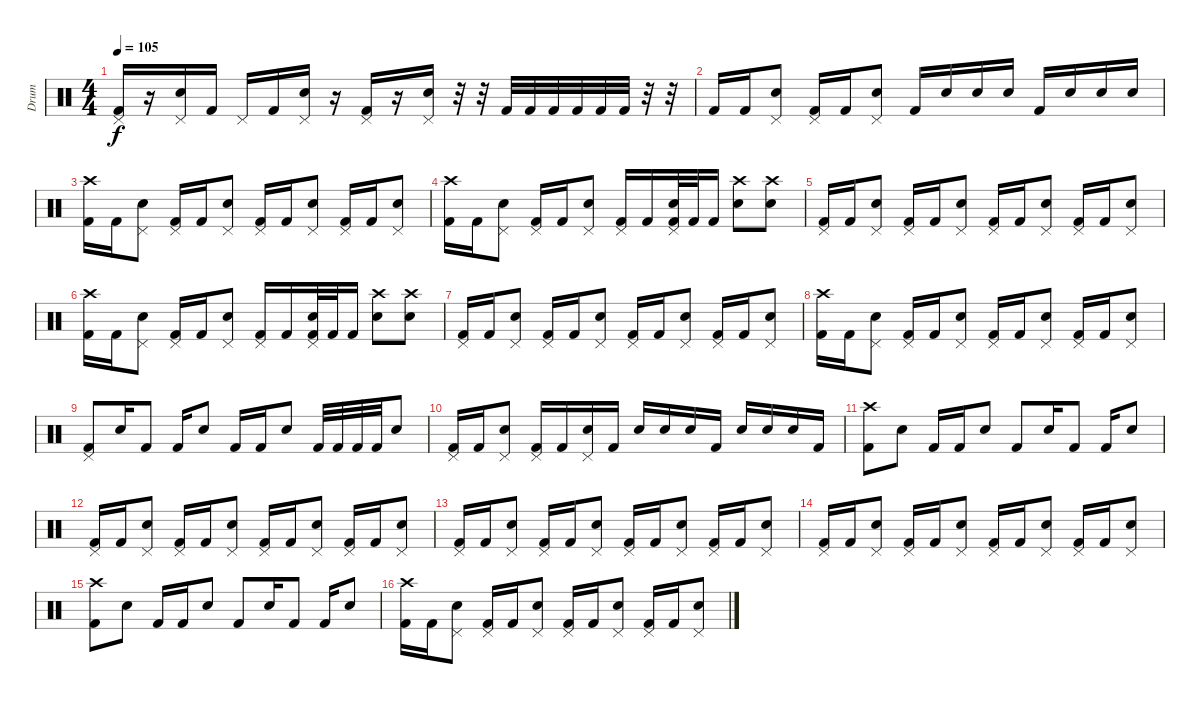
\track ("Drum" "Drum") {instrument percussion}
\staff {score}
\articulation defaults
\ts (4 4)
\tempo 105
\clef neutral
\ks c
("Pedal Hi-Hat (hit)" "Kick (hit) 2").16{dy f} r.16 ("Pedal Hi-Hat (hit)" "Snare (hit) 2").16 "Kick (hit) 2".16 "Pedal Hi-Hat (hit)".16 "Kick (hit) 2".16 ("Pedal Hi-Hat (hit)" "Snare (hit) 2").16 r.16 ("Pedal Hi-Hat (hit)" "Kick (hit) 2").16 r.16 ("Pedal Hi-Hat (hit)" "Snare (hit) 2").16 r.32 r.32 "Kick (hit) 2".32 "Kick (hit) 2".32 "Kick (hit) 2".32 "Kick (hit) 2".32 "Kick (hit) 2".32 "Kick (hit) 2".32 r.32 r.32 |
"Kick (hit) 2".16 "Kick (hit) 2".16 ("Pedal Hi-Hat (hit)" "Snare (hit) 2").8 ("Pedal Hi-Hat (hit)" "Kick (hit) 2").16 "Kick (hit) 2".16 ("Pedal Hi-Hat (hit)" "Snare (hit) 2").8 "Kick (hit) 2".16 "Snare (hit) 2".16 "Snare (hit) 2".16 "Snare (hit) 2".16 "Kick (hit) 2".16 "Snare (hit) 2".16 "Snare (hit) 2".16 "Snare (hit) 2".16 |
("Crash high (hit)" "Kick (hit) 2").16 "Kick (hit) 2".16 ("Pedal Hi-Hat (hit)" "Snare (hit) 2").8 ("Pedal Hi-Hat (hit)" "Kick (hit) 2").16 "Kick (hit) 2".16 ("Pedal Hi-Hat (hit)" "Snare (hit) 2").8 ("Pedal Hi-Hat (hit)" "Kick (hit) 2").16 "Kick (hit) 2".16 ("Pedal Hi-Hat (hit)" "Snare (hit) 2").8 ("Pedal Hi-Hat (hit)" "Kick (hit) 2").16 "Kick (hit) 2".16 ("Pedal Hi-Hat (hit)" "Snare (hit) 2").8 |
("Crash high (hit)" "Kick (hit) 2").16 "Kick (hit) 2".16 ("Pedal Hi-Hat (hit)" "Snare (hit) 2").8 ("Pedal Hi-Hat (hit)" "Kick (hit) 2").16 "Kick (hit) 2".16 ("Pedal Hi-Hat (hit)" "Snare (hit) 2").8 ("Pedal Hi-Hat (hit)" "Kick (hit) 2").16 "Kick (hit) 2".16 ("Pedal Hi-Hat (hit)" "Snare (hit) 2" "Kick (hit) 2").32 "Kick (hit) 2".32 "Kick (hit) 2".16 ("Crash high (hit)" "Snare (hit) 2").8 ("Crash high (hit)" "Snare (hit) 2").8 |
("Pedal Hi-Hat (hit)" "Kick (hit) 2").16 "Kick (hit) 2".16 ("Pedal Hi-Hat (hit)" "Snare (hit) 2").8 ("Pedal Hi-Hat (hit)" "Kick (hit) 2").16 "Kick (hit) 2".16 ("Pedal Hi-Hat (hit)" "Snare (hit) 2").8 ("Pedal Hi-Hat (hit)" "Kick (hit) 2").16 "Kick (hit) 2".16 ("Pedal Hi-Hat (hit)" "Snare (hit) 2").8 ("Pedal Hi-Hat (hit)" "Kick (hit) 2").16 "Kick (hit) 2".16 ("Pedal Hi-Hat (hit)" "Snare (hit) 2").8 |
("Crash high (hit)" "Kick (hit) 2").16 "Kick (hit) 2".16 ("Pedal Hi-Hat (hit)" "Snare (hit) 2").8 ("Pedal Hi-Hat (hit)" "Kick (hit) 2").16 "Kick (hit) 2".16 ("Pedal Hi-Hat (hit)" "Snare (hit) 2").8 ("Pedal Hi-Hat (hit)" "Kick (hit) 2").16 "Kick (hit) 2".16 ("Pedal Hi-Hat (hit)" "Snare (hit) 2" "Kick (hit) 2").32 "Kick (hit) 2".32 "Kick (hit) 2".16 ("Crash high (hit)" "Snare (hit) 2").8 ("Crash high (hit)" "Snare (hit) 2").8 |
("Pedal Hi-Hat (hit)" "Kick (hit) 2").16 "Kick (hit) 2".16 ("Pedal Hi-Hat (hit)" "Snare (hit) 2").8 ("Pedal Hi-Hat (hit)" "Kick (hit) 2").16 "Kick (hit) 2".16 ("Pedal Hi-Hat (hit)" "Snare (hit) 2").8 ("Pedal Hi-Hat (hit)" "Kick (hit) 2").16 "Kick (hit) 2".16 ("Pedal Hi-Hat (hit)" "Snare (hit) 2").8 ("Pedal Hi-Hat (hit)" "Kick (hit) 2").16 "Kick (hit) 2".16 ("Pedal Hi-Hat (hit)" "Snare (hit) 2").8 |
("Crash high (hit)" "Kick (hit) 2").16 "Kick (hit) 2".16 ("Pedal Hi-Hat (hit)" "Snare (hit) 2").8 ("Pedal Hi-Hat (hit)" "Kick (hit) 2").16 "Kick (hit) 2".16 ("Pedal Hi-Hat (hit)" "Snare (hit) 2").8 ("Pedal Hi-Hat (hit)" "Kick (hit) 2").16 "Kick (hit) 2".16 ("Pedal Hi-Hat (hit)" "Snare (hit) 2").8 ("Pedal Hi-Hat (hit)" "Kick (hit) 2").16 "Kick (hit) 2".16 ("Pedal Hi-Hat (hit)" "Snare (hit) 2").8 |
("Pedal Hi-Hat (hit)" "Kick (hit) 2").8 "Snare (hit) 2".16 "Kick (hit) 2".8 "Kick (hit) 2".16 "Snare (hit) 2".8 "Kick (hit) 2".16 "Kick (hit) 2".16 "Snare (hit) 2".8 "Kick (hit) 2".32 "Kick (hit) 2".32 "Kick (hit) 2".32 "Kick (hit) 2".32 "Snare (hit) 2".8 |
("Pedal Hi-Hat (hit)" "Kick (hit) 2").16 "Kick (hit) 2".16 ("Pedal Hi-Hat (hit)" "Snare (hit) 2").8 ("Pedal Hi-Hat (hit)" "Kick (hit) 2").16 "Kick (hit) 2".16 ("Pedal Hi-Hat (hit)" "Snare (hit) 2").16 "Kick (hit) 2".16 "Snare (hit) 2".16 "Snare (hit) 2".16 "Snare (hit) 2".16 "Kick (hit) 2".16 "Snare (hit) 2".16 "Snare (hit) 2".16 "Snare (hit) 2".16 "Kick (hit) 2".16 |
("Crash high (hit)" "Kick (hit) 2").8 "Snare (hit) 2".8 "Kick (hit) 2".16 "Kick (hit) 2".16 "Snare (hit) 2".8 "Kick (hit) 2".8 "Snare (hit) 2".16 "Kick (hit) 2".8 "Kick (hit) 2".16 "Snare (hit) 2".8 |
("Pedal Hi-Hat (hit)" "Kick (hit) 2").16 "Kick (hit) 2".16 ("Pedal Hi-Hat (hit)" "Snare (hit) 2").8 ("Pedal Hi-Hat (hit)" "Kick (hit) 2").16 "Kick (hit) 2".16 ("Pedal Hi-Hat (hit)" "Snare (hit) 2").8 ("Pedal Hi-Hat (hit)" "Kick (hit) 2").16 "Kick (hit) 2".16 ("Pedal Hi-Hat (hit)" "Snare (hit) 2").8 ("Pedal Hi-Hat (hit)" "Kick (hit) 2").16 "Kick (hit) 2".16 ("Pedal Hi-Hat (hit)" "Snare (hit) 2").8 |
("Pedal Hi-Hat (hit)" "Kick (hit) 2").16 "Kick (hit) 2".16 ("Pedal Hi-Hat (hit)" "Snare (hit) 2").8 ("Pedal Hi-Hat (hit)" "Kick (hit) 2").16 "Kick (hit) 2".16 ("Pedal Hi-Hat (hit)" "Snare (hit) 2").8 ("Pedal Hi-Hat (hit)" "Kick (hit) 2").16 "Kick (hit) 2".16 ("Pedal Hi-Hat (hit)" "Snare (hit) 2").8 ("Pedal Hi-Hat (hit)" "Kick (hit) 2").16 "Kick (hit) 2".16 ("Pedal Hi-Hat (hit)" "Snare (hit) 2").8 |
("Pedal Hi-Hat (hit)" "Kick (hit) 2").16 "Kick (hit) 2".16 ("Pedal Hi-Hat (hit)" "Snare (hit) 2").8 ("Pedal Hi-Hat (hit)" "Kick (hit) 2").16 "Kick (hit) 2".16 ("Pedal Hi-Hat (hit)" "Snare (hit) 2").8 ("Pedal Hi-Hat (hit)" "Kick (hit) 2").16 "Kick (hit) 2".16 ("Pedal Hi-Hat (hit)" "Snare (hit) 2").8 ("Pedal Hi-Hat (hit)" "Kick (hit) 2").16 "Kick (hit) 2".16 ("Pedal Hi-Hat (hit)" "Snare (hit) 2").8 |
("Crash high (hit)" "Kick (hit) 2").8 "Snare (hit) 2".8 "Kick (hit) 2".16 "Kick (hit) 2".16 "Snare (hit) 2".8 "Kick (hit) 2".8 "Snare (hit) 2".16 "Kick (hit) 2".8 "Kick (hit) 2".16 "Snare (hit) 2".8 |
("Crash high (hit)" "Kick (hit) 2").16 "Kick (hit) 2".16 ("Pedal Hi-Hat (hit)" "Snare (hit) 2").8 ("Pedal Hi-Hat (hit)" "Kick (hit) 2").16 "Kick (hit) 2".16 ("Pedal Hi-Hat (hit)" "Snare (hit) 2").8 ("Pedal Hi-Hat (hit)" "Kick (hit) 2").16 "Kick (hit) 2".16 ("Pedal Hi-Hat (hit)" "Snare (hit) 2").8 ("Pedal Hi-Hat (hit)" "Kick (hit) 2").16 "Kick (hit) 2".16 ("Pedal Hi-Hat (hit)" "Snare (hit) 2").8
